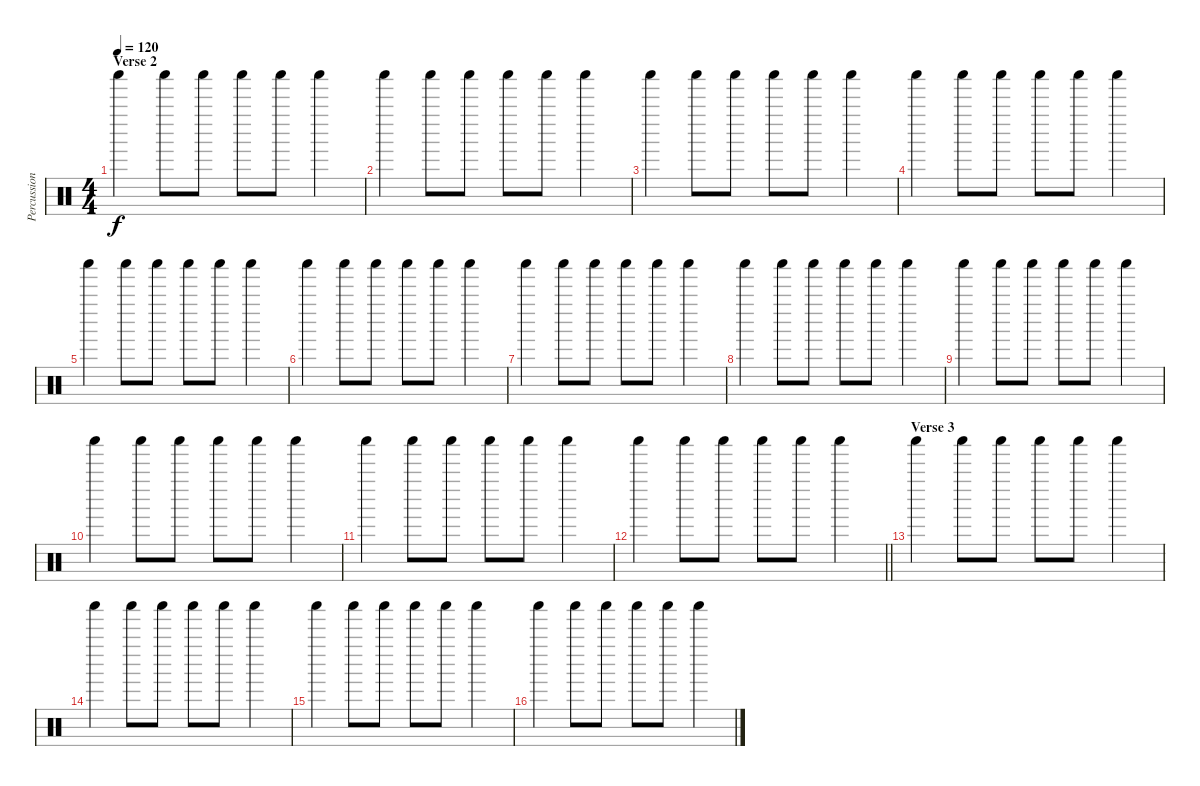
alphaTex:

\track ("Percussion" "Percussion") {instrument percussion}
\staff {score}
\articulation defaults
\ts (4 4)
\section ("" "Verse 2")
\tempo 120
\clef neutral
\ks c "Shaker (hit)".4{dy f} "Shaker (hit)".8 "Shaker (hit)".8 "Shaker (hit)".8 "Shaker (hit)".8 "Shaker (hit)".4
|
"Shaker (hit)".4 "Shaker (hit)".8 "Shaker (hit)".8 "Shaker (hit)".8 "Shaker (hit)".8 "Shaker (hit)".4 |
"Shaker (hit)".4 "Shaker (hit)".8 "Shaker (hit)".8 "Shaker (hit)".8 "Shaker (hit)".8 "Shaker (hit)".4 |
"Shaker (hit)".4 "Shaker (hit)".8 "Shaker (hit)".8 "Shaker (hit)".8 "Shaker (hit)".8 "Shaker (hit)".4 |
"Shaker (hit)".4 "Shaker (hit)".8 "Shaker (hit)".8 "Shaker (hit)".8 "Shaker (hit)".8 "Shaker (hit)".4 |
"Shaker (hit)".4 "Shaker (hit)".8 "Shaker (hit)".8 "Shaker (hit)".8 "Shaker (hit)".8 "Shaker (hit)".4 |
"Shaker (hit)".4 "Shaker (hit)".8 "Shaker (hit)".8 "Shaker (hit)".8 "Shaker (hit)".8 "Shaker (hit)".4 |
"Shaker (hit)".4 "Shaker (hit)".8 "Shaker (hit)".8 "Shaker (hit)".8 "Shaker (hit)".8 "Shaker (hit)".4 |
"Shaker (hit)".4 "Shaker (hit)".8 "Shaker (hit)".8 "Shaker (hit)".8 "Shaker (hit)".8 "Shaker (hit)".4 |
"Shaker (hit)".4 "Shaker (hit)".8 "Shaker (hit)".8 "Shaker (hit)".8 "Shaker (hit)".8 "Shaker (hit)".4 |
"Shaker (hit)".4 "Shaker (hit)".8 "Shaker (hit)".8 "Shaker (hit)".8 "Shaker (hit)".8 "Shaker (hit)".4 |
\barLineRight lightlight "Shaker (hit)".4 "Shaker (hit)".8 "Shaker (hit)".8 "Shaker (hit)".8 "Shaker (hit)".8 "Shaker (hit)".4
|
\section ("" "Verse 3")
"Shaker (hit)".4 "Shaker (hit)".8 "Shaker (hit)".8 "Shaker (hit)".8 "Shaker (hit)".8 "Shaker (hit)".4 |
"Shaker (hit)".4 "Shaker (hit)".8 "Shaker (hit)".8 "Shaker (hit)".8 "Shaker (hit)".8 "Shaker (hit)".4 |
"Shaker (hit)".4 "Shaker (hit)".8 "Shaker (hit)".8 "Shaker (hit)".8 "Shaker (hit)".8 "Shaker (hit)".4 |
"Shaker (hit)".4 "Shaker (hit)".8 "Shaker (hit)".8 "Shaker (hit)".8 "Shaker (hit)".8 "Shaker (hit)".4
